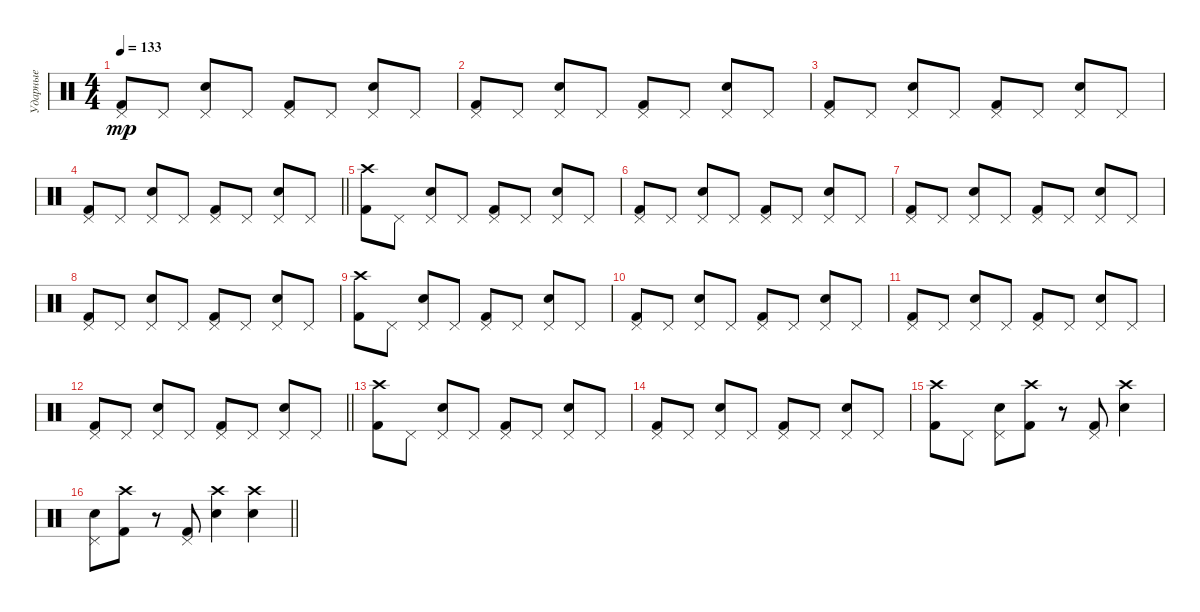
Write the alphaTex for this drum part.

\track ("Ударные" "Ударные") {instrument percussion}
\staff {score}
\articulation defaults
\ts (4 4)
\tempo 133
\clef neutral
\ks c
("Kick (hit) 2" "Pedal Hi-Hat (hit)").8{dy mp} "Pedal Hi-Hat (hit)".8 ("Electric Snare (hit)" "Pedal Hi-Hat (hit)").8 "Pedal Hi-Hat (hit)".8 ("Kick (hit) 2" "Pedal Hi-Hat (hit)").8 "Pedal Hi-Hat (hit)".8 ("Electric Snare (hit)" "Pedal Hi-Hat (hit)").8 "Pedal Hi-Hat (hit)".8 |
("Kick (hit) 2" "Pedal Hi-Hat (hit)").8 "Pedal Hi-Hat (hit)".8 ("Electric Snare (hit)" "Pedal Hi-Hat (hit)").8 "Pedal Hi-Hat (hit)".8 ("Kick (hit) 2" "Pedal Hi-Hat (hit)").8 "Pedal Hi-Hat (hit)".8 ("Electric Snare (hit)" "Pedal Hi-Hat (hit)").8 "Pedal Hi-Hat (hit)".8 |
("Kick (hit) 2" "Pedal Hi-Hat (hit)").8 "Pedal Hi-Hat (hit)".8 ("Electric Snare (hit)" "Pedal Hi-Hat (hit)").8 "Pedal Hi-Hat (hit)".8 ("Kick (hit) 2" "Pedal Hi-Hat (hit)").8 "Pedal Hi-Hat (hit)".8 ("Electric Snare (hit)" "Pedal Hi-Hat (hit)").8 "Pedal Hi-Hat (hit)".8 |
\barLineRight lightlight
("Kick (hit) 2" "Pedal Hi-Hat (hit)").8 "Pedal Hi-Hat (hit)".8 ("Electric Snare (hit)" "Pedal Hi-Hat (hit)").8 "Pedal Hi-Hat (hit)".8 ("Kick (hit) 2" "Pedal Hi-Hat (hit)").8 "Pedal Hi-Hat (hit)".8 ("Electric Snare (hit)" "Pedal Hi-Hat (hit)").8 "Pedal Hi-Hat (hit)".8 |
("Kick (hit) 2" "Crash high (hit)").8 "Pedal Hi-Hat (hit)".8 ("Electric Snare (hit)" "Pedal Hi-Hat (hit)").8 "Pedal Hi-Hat (hit)".8 ("Kick (hit) 2" "Pedal Hi-Hat (hit)").8 "Pedal Hi-Hat (hit)".8 ("Electric Snare (hit)" "Pedal Hi-Hat (hit)").8 "Pedal Hi-Hat (hit)".8 |
("Kick (hit) 2" "Pedal Hi-Hat (hit)").8 "Pedal Hi-Hat (hit)".8 ("Electric Snare (hit)" "Pedal Hi-Hat (hit)").8 "Pedal Hi-Hat (hit)".8 ("Kick (hit) 2" "Pedal Hi-Hat (hit)").8 "Pedal Hi-Hat (hit)".8 ("Electric Snare (hit)" "Pedal Hi-Hat (hit)").8 "Pedal Hi-Hat (hit)".8 |
("Kick (hit) 2" "Pedal Hi-Hat (hit)").8 "Pedal Hi-Hat (hit)".8 ("Electric Snare (hit)" "Pedal Hi-Hat (hit)").8 "Pedal Hi-Hat (hit)".8 ("Kick (hit) 2" "Pedal Hi-Hat (hit)").8 "Pedal Hi-Hat (hit)".8 ("Electric Snare (hit)" "Pedal Hi-Hat (hit)").8 "Pedal Hi-Hat (hit)".8 |
("Kick (hit) 2" "Pedal Hi-Hat (hit)").8 "Pedal Hi-Hat (hit)".8 ("Electric Snare (hit)" "Pedal Hi-Hat (hit)").8 "Pedal Hi-Hat (hit)".8 ("Kick (hit) 2" "Pedal Hi-Hat (hit)").8 "Pedal Hi-Hat (hit)".8 ("Electric Snare (hit)" "Pedal Hi-Hat (hit)").8 "Pedal Hi-Hat (hit)".8 |
("Kick (hit) 2" "Crash high (hit)").8 "Pedal Hi-Hat (hit)".8 ("Electric Snare (hit)" "Pedal Hi-Hat (hit)").8 "Pedal Hi-Hat (hit)".8 ("Kick (hit) 2" "Pedal Hi-Hat (hit)").8 "Pedal Hi-Hat (hit)".8 ("Electric Snare (hit)" "Pedal Hi-Hat (hit)").8 "Pedal Hi-Hat (hit)".8 |
("Kick (hit) 2" "Pedal Hi-Hat (hit)").8 "Pedal Hi-Hat (hit)".8 ("Electric Snare (hit)" "Pedal Hi-Hat (hit)").8 "Pedal Hi-Hat (hit)".8 ("Kick (hit) 2" "Pedal Hi-Hat (hit)").8 "Pedal Hi-Hat (hit)".8 ("Electric Snare (hit)" "Pedal Hi-Hat (hit)").8 "Pedal Hi-Hat (hit)".8 |
("Kick (hit) 2" "Pedal Hi-Hat (hit)").8 "Pedal Hi-Hat (hit)".8 ("Electric Snare (hit)" "Pedal Hi-Hat (hit)").8 "Pedal Hi-Hat (hit)".8 ("Kick (hit) 2" "Pedal Hi-Hat (hit)").8 "Pedal Hi-Hat (hit)".8 ("Electric Snare (hit)" "Pedal Hi-Hat (hit)").8 "Pedal Hi-Hat (hit)".8 |
\barLineRight lightlight
("Kick (hit) 2" "Pedal Hi-Hat (hit)").8 "Pedal Hi-Hat (hit)".8 ("Electric Snare (hit)" "Pedal Hi-Hat (hit)").8 "Pedal Hi-Hat (hit)".8 ("Kick (hit) 2" "Pedal Hi-Hat (hit)").8 "Pedal Hi-Hat (hit)".8 ("Electric Snare (hit)" "Pedal Hi-Hat (hit)").8 "Pedal Hi-Hat (hit)".8 |
\section ("" "")
("Kick (hit) 2" "Crash high (hit)").8 "Pedal Hi-Hat (hit)".8 ("Electric Snare (hit)" "Pedal Hi-Hat (hit)").8 "Pedal Hi-Hat (hit)".8 ("Kick (hit) 2" "Pedal Hi-Hat (hit)").8 "Pedal Hi-Hat (hit)".8 ("Electric Snare (hit)" "Pedal Hi-Hat (hit)").8 "Pedal Hi-Hat (hit)".8 |
("Kick (hit) 2" "Pedal Hi-Hat (hit)").8 "Pedal Hi-Hat (hit)".8 ("Electric Snare (hit)" "Pedal Hi-Hat (hit)").8 "Pedal Hi-Hat (hit)".8 ("Kick (hit) 2" "Pedal Hi-Hat (hit)").8 "Pedal Hi-Hat (hit)".8 ("Electric Snare (hit)" "Pedal Hi-Hat (hit)").8 "Pedal Hi-Hat (hit)".8 |
("Kick (hit) 2" "Crash high (hit)").8 "Pedal Hi-Hat (hit)".8 ("Electric Snare (hit)" "Pedal Hi-Hat (hit)").8 ("Kick (hit) 2" "Crash high (hit)").8 r.8 ("Kick (hit) 2" "Pedal Hi-Hat (hit)").8 ("Electric Snare (hit)" "Crash high (hit)").4 |
\barLineRight lightlight
("Electric Snare (hit)" "Pedal Hi-Hat (hit)").8 ("Kick (hit) 2" "Crash high (hit)").8 r.8 ("Kick (hit) 2" "Pedal Hi-Hat (hit)").8 ("Electric Snare (hit)" "Crash high (hit)").4 ("Electric Snare (hit)" "Crash high (hit)").4
